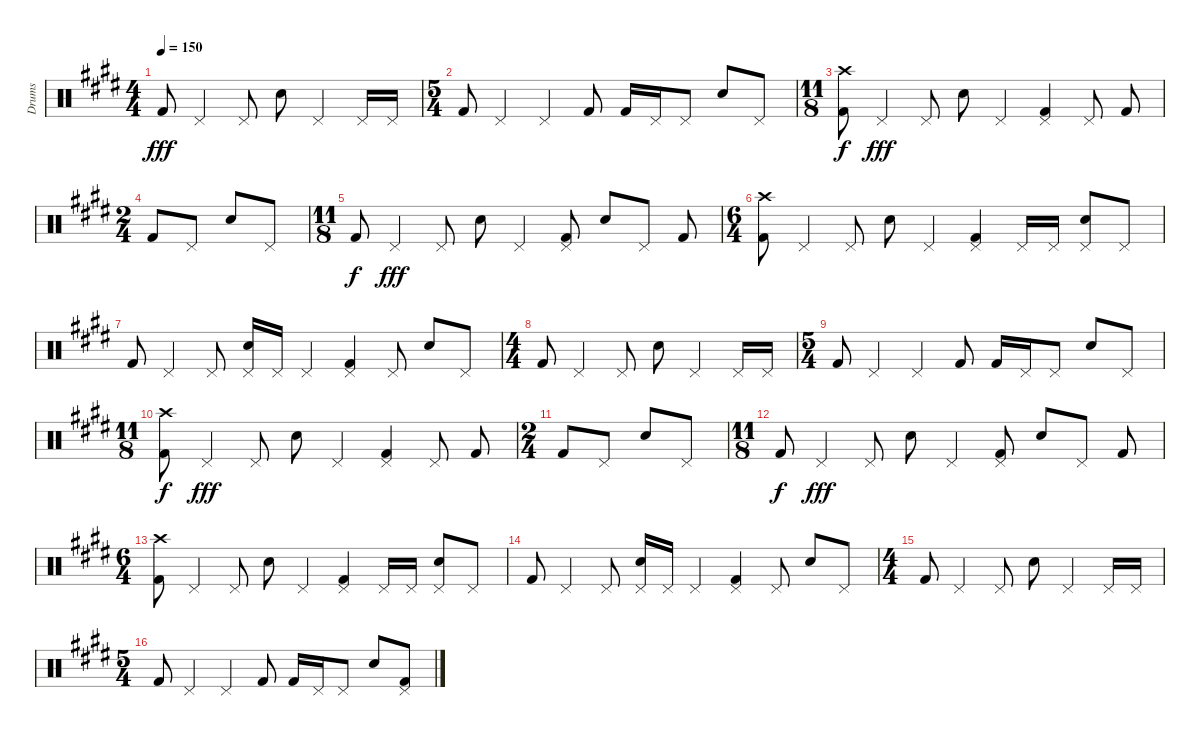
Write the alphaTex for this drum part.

\track ("Drums" "Drums") {instrument percussion}
\staff {score}
\articulation defaults
\ts (4 4)
\tempo 150
\clef neutral
\ks e "Kick (hit) 2".8{dy fff} "Pedal Hi-Hat (hit)".4 "Pedal Hi-Hat (hit)".8 "Electric Snare (hit)".8 "Pedal Hi-Hat (hit)".4 "Pedal Hi-Hat (hit)".16 "Pedal Hi-Hat (hit)".16
|
\ts (5 4)
"Kick (hit) 2".8 "Pedal Hi-Hat (hit)".4 "Pedal Hi-Hat (hit)".4 "Kick (hit) 2".8 "Kick (hit) 2".16 "Pedal Hi-Hat (hit)".16 "Pedal Hi-Hat (hit)".8 "Electric Snare (hit)".8 "Pedal Hi-Hat (hit)".8 |
\ts (11 8)
("Crash high (hit)" "Kick (hit) 2").8{dy f} "Pedal Hi-Hat (hit)".4{dy fff} "Pedal Hi-Hat (hit)".8 "Electric Snare (hit)".8 "Pedal Hi-Hat (hit)".4 ("Pedal Hi-Hat (hit)" "Kick (hit) 2").4 "Pedal Hi-Hat (hit)".8 "Kick (hit) 2".8 |
\ts (2 4)
"Kick (hit) 2".8 "Pedal Hi-Hat (hit)".8 "Electric Snare (hit)".8 "Pedal Hi-Hat (hit)".8 |
\ts (11 8)
"Kick (hit) 2".8{dy f} "Pedal Hi-Hat (hit)".4{dy fff} "Pedal Hi-Hat (hit)".8 "Electric Snare (hit)".8 "Pedal Hi-Hat (hit)".4 ("Pedal Hi-Hat (hit)" "Kick (hit) 2").8 "Electric Snare (hit)".8 "Pedal Hi-Hat (hit)".8 "Kick (hit) 2".8 |
\ts (6 4)
("Crash high (hit)" "Kick (hit) 2").8 "Pedal Hi-Hat (hit)".4 "Pedal Hi-Hat (hit)".8 "Electric Snare (hit)".8 "Pedal Hi-Hat (hit)".4 ("Pedal Hi-Hat (hit)" "Kick (hit) 2").4 "Pedal Hi-Hat (hit)".16 "Pedal Hi-Hat (hit)".16 ("Pedal Hi-Hat (hit)" "Electric Snare (hit)").8 "Pedal Hi-Hat (hit)".8 |
"Kick (hit) 2".8 "Pedal Hi-Hat (hit)".4 "Pedal Hi-Hat (hit)".8 ("Pedal Hi-Hat (hit)" "Electric Snare (hit)").16 "Pedal Hi-Hat (hit)".16 "Pedal Hi-Hat (hit)".4 ("Pedal Hi-Hat (hit)" "Kick (hit) 2").4 "Pedal Hi-Hat (hit)".8 "Electric Snare (hit)".8 "Pedal Hi-Hat (hit)".8 |
\ts (4 4)
"Kick (hit) 2".8 "Pedal Hi-Hat (hit)".4 "Pedal Hi-Hat (hit)".8 "Electric Snare (hit)".8 "Pedal Hi-Hat (hit)".4 "Pedal Hi-Hat (hit)".16 "Pedal Hi-Hat (hit)".16 |
\ts (5 4)
"Kick (hit) 2".8 "Pedal Hi-Hat (hit)".4 "Pedal Hi-Hat (hit)".4 "Kick (hit) 2".8 "Kick (hit) 2".16 "Pedal Hi-Hat (hit)".16 "Pedal Hi-Hat (hit)".8 "Electric Snare (hit)".8 "Pedal Hi-Hat (hit)".8 |
\ts (11 8)
\section ("" "")
("Crash high (hit)" "Kick (hit) 2").8{dy f} "Pedal Hi-Hat (hit)".4{dy fff} "Pedal Hi-Hat (hit)".8 "Electric Snare (hit)".8 "Pedal Hi-Hat (hit)".4 ("Pedal Hi-Hat (hit)" "Kick (hit) 2").4 "Pedal Hi-Hat (hit)".8 "Kick (hit) 2".8 |
\ts (2 4)
"Kick (hit) 2".8 "Pedal Hi-Hat (hit)".8 "Electric Snare (hit)".8 "Pedal Hi-Hat (hit)".8 |
\ts (11 8)
"Kick (hit) 2".8{dy f} "Pedal Hi-Hat (hit)".4{dy fff} "Pedal Hi-Hat (hit)".8 "Electric Snare (hit)".8 "Pedal Hi-Hat (hit)".4 ("Pedal Hi-Hat (hit)" "Kick (hit) 2").8 "Electric Snare (hit)".8 "Pedal Hi-Hat (hit)".8 "Kick (hit) 2".8 |
\ts (6 4)
("Crash high (hit)" "Kick (hit) 2").8 "Pedal Hi-Hat (hit)".4 "Pedal Hi-Hat (hit)".8 "Electric Snare (hit)".8 "Pedal Hi-Hat (hit)".4 ("Pedal Hi-Hat (hit)" "Kick (hit) 2").4 "Pedal Hi-Hat (hit)".16 "Pedal Hi-Hat (hit)".16 ("Pedal Hi-Hat (hit)" "Electric Snare (hit)").8 "Pedal Hi-Hat (hit)".8 |
"Kick (hit) 2".8 "Pedal Hi-Hat (hit)".4 "Pedal Hi-Hat (hit)".8 ("Pedal Hi-Hat (hit)" "Electric Snare (hit)").16 "Pedal Hi-Hat (hit)".16 "Pedal Hi-Hat (hit)".4 ("Pedal Hi-Hat (hit)" "Kick (hit) 2").4 "Pedal Hi-Hat (hit)".8 "Electric Snare (hit)".8 "Pedal Hi-Hat (hit)".8 |
\ts (4 4)
"Kick (hit) 2".8 "Pedal Hi-Hat (hit)".4 "Pedal Hi-Hat (hit)".8 "Electric Snare (hit)".8 "Pedal Hi-Hat (hit)".4 "Pedal Hi-Hat (hit)".16 "Pedal Hi-Hat (hit)".16 |
\ts (5 4)
"Kick (hit) 2".8 "Pedal Hi-Hat (hit)".4 "Pedal Hi-Hat (hit)".4 "Kick (hit) 2".8 "Kick (hit) 2".16 "Pedal Hi-Hat (hit)".16 "Pedal Hi-Hat (hit)".8 "Electric Snare (hit)".8 ("Pedal Hi-Hat (hit)" "Kick (hit) 2").8
